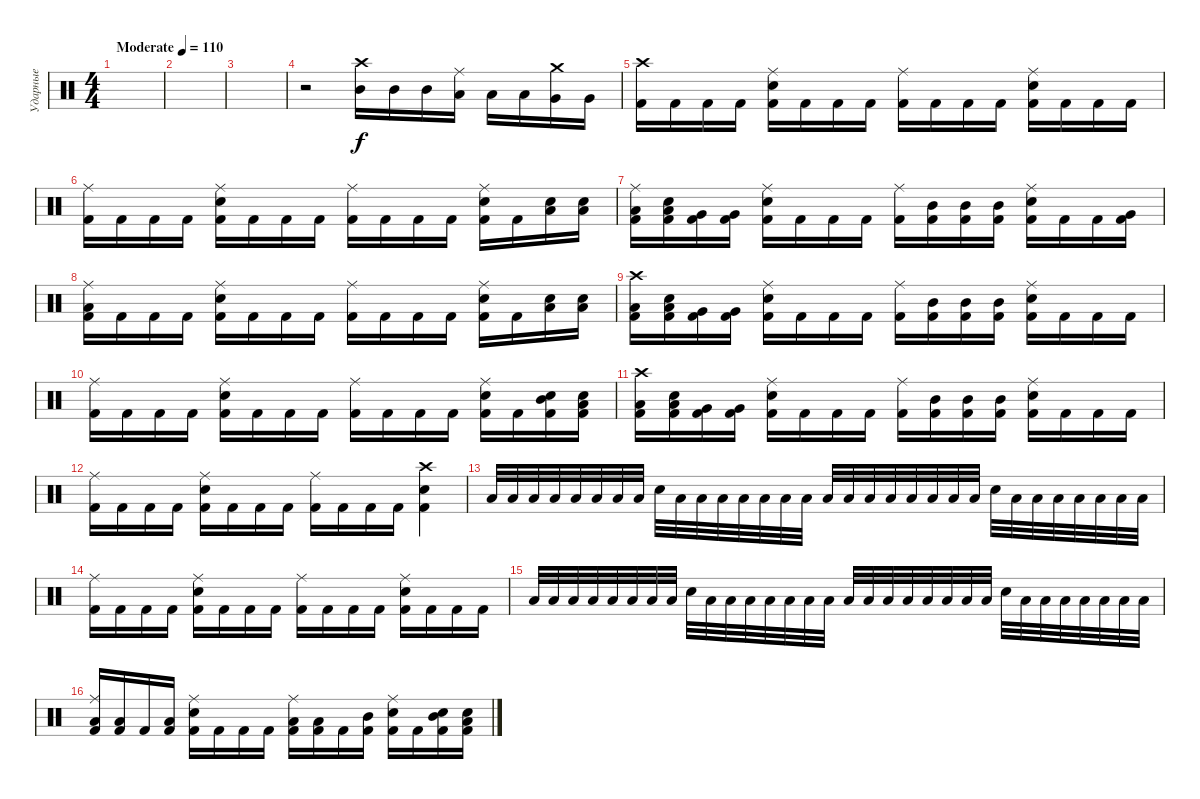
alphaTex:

\track ("Ударные" "Ударные") {instrument percussion}
\staff {score}
\articulation defaults
\ts (4 4)
\tempo (110 "Moderate")
\clef neutral
\ks c
|
|
|
r.2 ("Mid Tom (hit)" "Crash high (hit)").16 "Mid Tom (hit)".16 "Mid Tom (hit)".16 ("Low Tom (hit)" "Ride (middle)").16 "Low Tom (hit)".16 "Low Tom (hit)".16 ("Very Low Tom (hit)" "Crash medium (hit)").16 "Very Low Tom (hit)".16 |
("Kick (hit) 2" "Crash high (hit)").16 "Kick (hit) 2".16 "Kick (hit) 2".16 "Kick (hit) 2".16 ("Kick (hit) 2" "Snare (hit) 2" "Ride (middle)").16 "Kick (hit) 2".16 "Kick (hit) 2".16 "Kick (hit) 2".16 ("Kick (hit) 2" "Ride (middle)").16 "Kick (hit) 2".16 "Kick (hit) 2".16 "Kick (hit) 2".16 ("Kick (hit) 2" "Snare (hit) 2" "Ride (middle)").16 "Kick (hit) 2".16 "Kick (hit) 2".16 "Kick (hit) 2".16 |
("Kick (hit) 2" "Ride (middle)").16 "Kick (hit) 2".16 "Kick (hit) 2".16 "Kick (hit) 2".16 ("Kick (hit) 2" "Snare (hit) 2" "Ride (middle)").16 "Kick (hit) 2".16 "Kick (hit) 2".16 "Kick (hit) 2".16 ("Kick (hit) 2" "Ride (middle)").16 "Kick (hit) 2".16 "Kick (hit) 2".16 "Kick (hit) 2".16 ("Kick (hit) 2" "Snare (hit) 2" "Ride (middle)").16 "Kick (hit) 2".16 ("Snare (hit) 2" "Low Tom (hit)").16 ("Snare (hit) 2" "Low Tom (hit)").16 |
("Kick (hit) 2" "Ride (middle)" "Low Floor Tom (hit)").16 ("Kick (hit) 2" "Snare (hit) 2" "Low Floor Tom (hit)").16 ("Kick (hit) 2" "Very Low Tom (hit)").16 ("Kick (hit) 2" "Very Low Tom (hit)").16 ("Kick (hit) 2" "Snare (hit) 2" "Ride (middle)").16 "Kick (hit) 2".16 "Kick (hit) 2".16 "Kick (hit) 2".16 ("Kick (hit) 2" "Ride (middle)").16 ("Kick (hit) 2" "Mid Tom (hit)").16 ("Kick (hit) 2" "Mid Tom (hit)").16 ("Kick (hit) 2" "Mid Tom (hit)").16 ("Kick (hit) 2" "Snare (hit) 2" "Ride (middle)").16 "Kick (hit) 2".16 "Kick (hit) 2".16 ("Kick (hit) 2" "Very Low Tom (hit)").16 |
("Kick (hit) 2" "Low Floor Tom (hit)" "Ride (middle)").16 "Kick (hit) 2".16 "Kick (hit) 2".16 "Kick (hit) 2".16 ("Kick (hit) 2" "Snare (hit) 2" "Ride (middle)").16 "Kick (hit) 2".16 "Kick (hit) 2".16 "Kick (hit) 2".16 ("Kick (hit) 2" "Ride (middle)").16 "Kick (hit) 2".16 "Kick (hit) 2".16 "Kick (hit) 2".16 ("Kick (hit) 2" "Snare (hit) 2" "Ride (middle)").16 "Kick (hit) 2".16 ("Snare (hit) 2" "Low Floor Tom (hit)").16 ("Snare (hit) 2" "Low Floor Tom (hit)").16 |
("Kick (hit) 2" "Crash high (hit)" "Low Floor Tom (hit)").16 ("Kick (hit) 2" "Snare (hit) 2" "Low Floor Tom (hit)").16 ("Kick (hit) 2" "Very Low Tom (hit)").16 ("Kick (hit) 2" "Very Low Tom (hit)").16 ("Kick (hit) 2" "Snare (hit) 2" "Ride (middle)").16 "Kick (hit) 2".16 "Kick (hit) 2".16 "Kick (hit) 2".16 ("Kick (hit) 2" "Ride (middle)").16 ("Kick (hit) 2" "Mid Tom (hit)").16 ("Kick (hit) 2" "Mid Tom (hit)").16 ("Kick (hit) 2" "Mid Tom (hit)").16 ("Kick (hit) 2" "Snare (hit) 2" "Ride (middle)").16 "Kick (hit) 2".16 "Kick (hit) 2".16 "Kick (hit) 2".16 |
("Kick (hit) 2" "Ride (middle)").16 "Kick (hit) 2".16 "Kick (hit) 2".16 "Kick (hit) 2".16 ("Kick (hit) 2" "Snare (hit) 2" "Ride (middle)").16 "Kick (hit) 2".16 "Kick (hit) 2".16 "Kick (hit) 2".16 ("Kick (hit) 2" "Ride (middle)").16 "Kick (hit) 2".16 "Kick (hit) 2".16 "Kick (hit) 2".16 ("Kick (hit) 2" "Snare (hit) 2" "Ride (middle)").16 "Kick (hit) 2".16 ("Kick (hit) 2" "Snare (hit) 2" "Mid Tom (hit)").16 ("Kick (hit) 2" "Snare (hit) 2" "Low Tom (hit)").16 |
("Kick (hit) 2" "Crash high (hit)" "Low Floor Tom (hit)").16 ("Kick (hit) 2" "Snare (hit) 2" "Low Floor Tom (hit)").16 ("Kick (hit) 2" "Very Low Tom (hit)").16 ("Kick (hit) 2" "Very Low Tom (hit)").16 ("Kick (hit) 2" "Snare (hit) 2" "Ride (middle)").16 "Kick (hit) 2".16 "Kick (hit) 2".16 "Kick (hit) 2".16 ("Kick (hit) 2" "Ride (middle)").16 ("Kick (hit) 2" "Mid Tom (hit)").16 ("Kick (hit) 2" "Mid Tom (hit)").16 ("Kick (hit) 2" "Mid Tom (hit)").16 ("Kick (hit) 2" "Snare (hit) 2" "Ride (middle)").16 "Kick (hit) 2".16 "Kick (hit) 2".16 "Kick (hit) 2".16 |
("Kick (hit) 2" "Ride (middle)").16 "Kick (hit) 2".16 "Kick (hit) 2".16 "Kick (hit) 2".16 ("Kick (hit) 2" "Snare (hit) 2" "Ride (middle)").16 "Kick (hit) 2".16 "Kick (hit) 2".16 "Kick (hit) 2".16 ("Kick (hit) 2" "Ride (middle)").16 "Kick (hit) 2".16 "Kick (hit) 2".16 "Kick (hit) 2".16 ("Kick (hit) 2" "Snare (hit) 2" "Crash high (hit)").4 |
"Low Floor Tom (hit)".32 "Low Floor Tom (hit)".32 "Low Floor Tom (hit)".32 "Low Floor Tom (hit)".32 "Low Floor Tom (hit)".32 "Low Floor Tom (hit)".32 "Low Floor Tom (hit)".32 "Low Floor Tom (hit)".32 "Snare (hit) 2".32 "Low Floor Tom (hit)".32 "Low Floor Tom (hit)".32 "Low Floor Tom (hit)".32 "Low Floor Tom (hit)".32 "Low Floor Tom (hit)".32 "Low Floor Tom (hit)".32 "Low Floor Tom (hit)".32 "Low Floor Tom (hit)".32 "Low Floor Tom (hit)".32 "Low Floor Tom (hit)".32 "Low Floor Tom (hit)".32 "Low Floor Tom (hit)".32 "Low Floor Tom (hit)".32 "Low Floor Tom (hit)".32 "Low Floor Tom (hit)".32 "Snare (hit) 2".32 "Low Floor Tom (hit)".32 "Low Floor Tom (hit)".32 "Low Floor Tom (hit)".32 "Low Floor Tom (hit)".32 "Low Floor Tom (hit)".32 "Low Floor Tom (hit)".32 "Low Floor Tom (hit)".32 |
("Kick (hit) 2" "Ride (middle)").16 "Kick (hit) 2".16 "Kick (hit) 2".16 "Kick (hit) 2".16 ("Kick (hit) 2" "Snare (hit) 2" "Ride (middle)").16 "Kick (hit) 2".16 "Kick (hit) 2".16 "Kick (hit) 2".16 ("Kick (hit) 2" "Ride (middle)").16 "Kick (hit) 2".16 "Kick (hit) 2".16 "Kick (hit) 2".16 ("Kick (hit) 2" "Snare (hit) 2" "Ride (middle)").16 "Kick (hit) 2".16 "Kick (hit) 2".16 "Kick (hit) 2".16 |
"Low Floor Tom (hit)".32 "Low Floor Tom (hit)".32 "Low Floor Tom (hit)".32 "Low Floor Tom (hit)".32 "Low Floor Tom (hit)".32 "Low Floor Tom (hit)".32 "Low Floor Tom (hit)".32 "Low Floor Tom (hit)".32 "Snare (hit) 2".32 "Low Floor Tom (hit)".32 "Low Floor Tom (hit)".32 "Low Floor Tom (hit)".32 "Low Floor Tom (hit)".32 "Low Floor Tom (hit)".32 "Low Floor Tom (hit)".32 "Low Floor Tom (hit)".32 "Low Floor Tom (hit)".32 "Low Floor Tom (hit)".32 "Low Floor Tom (hit)".32 "Low Floor Tom (hit)".32 "Low Floor Tom (hit)".32 "Low Floor Tom (hit)".32 "Low Floor Tom (hit)".32 "Low Floor Tom (hit)".32 "Snare (hit) 2".32 "Low Floor Tom (hit)".32 "Low Floor Tom (hit)".32 "Low Floor Tom (hit)".32 "Low Floor Tom (hit)".32 "Low Floor Tom (hit)".32 "Low Floor Tom (hit)".32 "Low Floor Tom (hit)".32 |
("Kick (hit) 2" "Low Tom (hit)" "Ride (middle)").16 ("Kick (hit) 2" "Low Tom (hit)").16 "Kick (hit) 2".16 ("Kick (hit) 2" "Low Floor Tom (hit)").16 ("Kick (hit) 2" "Snare (hit) 2" "Ride (middle)").16 "Kick (hit) 2".16 "Kick (hit) 2".16 "Kick (hit) 2".16 ("Kick (hit) 2" "Low Floor Tom (hit)" "Ride (middle)").16 ("Kick (hit) 2" "Low Floor Tom (hit)").16 "Kick (hit) 2".16 ("Kick (hit) 2" "Mid Tom (hit)").16 ("Kick (hit) 2" "Snare (hit) 2" "Ride (middle)").16 "Kick (hit) 2".16 ("Kick (hit) 2" "Snare (hit) 2" "Mid Tom (hit)").16 ("Kick (hit) 2" "Snare (hit) 2" "Low Tom (hit)").16
